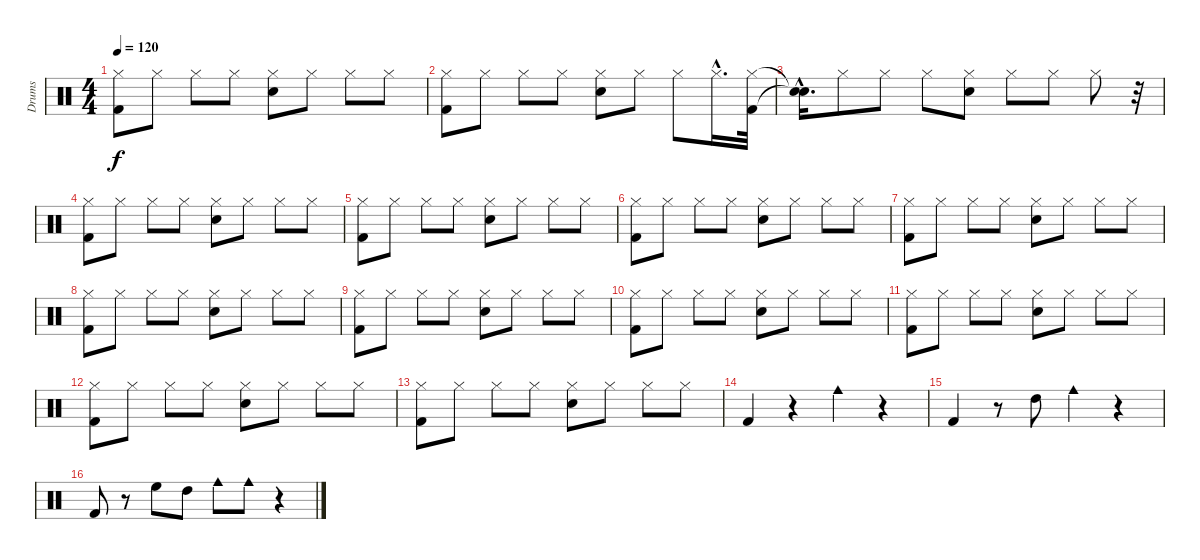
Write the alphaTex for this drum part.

\track ("Drums" "Drums") {instrument percussion}
\staff {score}
\articulation defaults
\ts (4 4)
\tempo 120
\clef neutral
\ks c
("Hi-Hat (closed)" "Kick (hit) 2").8{dy f} "Hi-Hat (closed)".8 "Hi-Hat (closed)".8 "Hi-Hat (closed)".8 ("Electric Snare (hit)" "Hi-Hat (closed)").8 "Hi-Hat (closed)".8 "Hi-Hat (closed)".8 "Hi-Hat (closed)".8 |
("Hi-Hat (closed)" "Kick (hit) 2").8 "Hi-Hat (closed)".8 "Hi-Hat (closed)".8 "Hi-Hat (closed)".8 ("Electric Snare (hit)" "Hi-Hat (closed)").8 "Hi-Hat (closed)".8 "Hi-Hat (closed)".8 "Hi-Hat (closed)"{hac}.16{d} ("Hi-Hat (closed)" "Kick (hit) 2").32 |
("Snare (hit)"{hac t} "Snare (hit)"{hac t}).16{d} "Hi-Hat (closed)".8 "Hi-Hat (closed)".8 "Hi-Hat (closed)".8 ("Electric Snare (hit)" "Hi-Hat (closed)").8 "Hi-Hat (closed)".8 "Hi-Hat (closed)".8 "Hi-Hat (closed)".8 r.32 |
("Hi-Hat (closed)" "Kick (hit) 2").8 "Hi-Hat (closed)".8 "Hi-Hat (closed)".8 "Hi-Hat (closed)".8 ("Electric Snare (hit)" "Hi-Hat (closed)").8 "Hi-Hat (closed)".8 "Hi-Hat (closed)".8 "Hi-Hat (closed)".8 |
("Hi-Hat (closed)" "Kick (hit) 2").8 "Hi-Hat (closed)".8 "Hi-Hat (closed)".8 "Hi-Hat (closed)".8 ("Electric Snare (hit)" "Hi-Hat (closed)").8 "Hi-Hat (closed)".8 "Hi-Hat (closed)".8 "Hi-Hat (closed)".8 |
("Hi-Hat (closed)" "Kick (hit) 2").8 "Hi-Hat (closed)".8 "Hi-Hat (closed)".8 "Hi-Hat (closed)".8 ("Electric Snare (hit)" "Hi-Hat (closed)").8 "Hi-Hat (closed)".8 "Hi-Hat (closed)".8 "Hi-Hat (closed)".8 |
("Hi-Hat (closed)" "Kick (hit) 2").8 "Hi-Hat (closed)".8 "Hi-Hat (closed)".8 "Hi-Hat (closed)".8 ("Electric Snare (hit)" "Hi-Hat (closed)").8 "Hi-Hat (closed)".8 "Hi-Hat (closed)".8 "Hi-Hat (closed)".8 |
("Hi-Hat (closed)" "Kick (hit) 2").8 "Hi-Hat (closed)".8 "Hi-Hat (closed)".8 "Hi-Hat (closed)".8 ("Electric Snare (hit)" "Hi-Hat (closed)").8 "Hi-Hat (closed)".8 "Hi-Hat (closed)".8 "Hi-Hat (closed)".8 |
("Hi-Hat (closed)" "Kick (hit) 2").8 "Hi-Hat (closed)".8 "Hi-Hat (closed)".8 "Hi-Hat (closed)".8 ("Electric Snare (hit)" "Hi-Hat (closed)").8 "Hi-Hat (closed)".8 "Hi-Hat (closed)".8 "Hi-Hat (closed)".8 |
("Hi-Hat (closed)" "Kick (hit) 2").8 "Hi-Hat (closed)".8 "Hi-Hat (closed)".8 "Hi-Hat (closed)".8 ("Electric Snare (hit)" "Hi-Hat (closed)").8 "Hi-Hat (closed)".8 "Hi-Hat (closed)".8 "Hi-Hat (closed)".8 |
("Hi-Hat (closed)" "Kick (hit) 2").8 "Hi-Hat (closed)".8 "Hi-Hat (closed)".8 "Hi-Hat (closed)".8 ("Electric Snare (hit)" "Hi-Hat (closed)").8 "Hi-Hat (closed)".8 "Hi-Hat (closed)".8 "Hi-Hat (closed)".8 |
("Hi-Hat (closed)" "Kick (hit) 2").8 "Hi-Hat (closed)".8 "Hi-Hat (closed)".8 "Hi-Hat (closed)".8 ("Electric Snare (hit)" "Hi-Hat (closed)").8 "Hi-Hat (closed)".8 "Hi-Hat (closed)".8 "Hi-Hat (closed)".8 |
("Hi-Hat (closed)" "Kick (hit) 2").8 "Hi-Hat (closed)".8 "Hi-Hat (closed)".8 "Hi-Hat (closed)".8 ("Electric Snare (hit)" "Hi-Hat (closed)").8 "Hi-Hat (closed)".8 "Hi-Hat (closed)".8 "Hi-Hat (closed)".8 |
"Kick (hit) 2".4 r.4 "Cowbell medium (hit)".4 r.4 |
"Kick (hit) 2".4 r.8 "High Tom (hit)".8 "Cowbell medium (hit)".4 r.4 |
"Kick (hit) 2".8 r.8 "High Floor Tom (hit)".8 "High Tom (hit)".8 "Cowbell medium (hit)".8 "Cowbell medium (hit)".8 r.4
